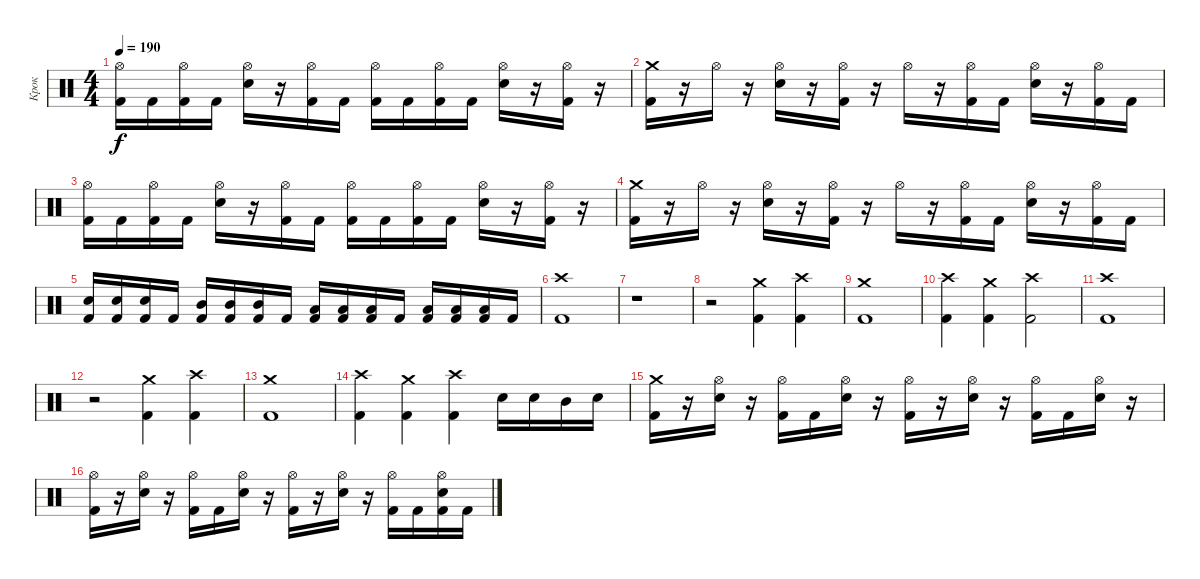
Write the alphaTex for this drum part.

\track ("Крок" "Крок") {instrument percussion}
\staff {score}
\articulation defaults
\ts (4 4)
\tempo 190
\clef neutral
\ks c
("Hi-Hat (open)" "Kick (hit) 2").16{dy f} "Kick (hit) 2".16 ("Hi-Hat (open)" "Kick (hit) 2").16 "Kick (hit) 2".16 ("Hi-Hat (open)" "Electric Snare (hit)").16 r.16 ("Hi-Hat (open)" "Kick (hit) 2").16 "Kick (hit) 2".16 ("Hi-Hat (open)" "Kick (hit) 2").16 "Kick (hit) 2".16 ("Hi-Hat (open)" "Kick (hit) 2").16 "Kick (hit) 2".16 ("Hi-Hat (open)" "Electric Snare (hit)").16 r.16 ("Hi-Hat (open)" "Kick (hit) 2").16 r.16 |
("Crash medium (hit)" "Kick (hit) 2").16 r.16 "Hi-Hat (open)".16 r.16 ("Hi-Hat (open)" "Electric Snare (hit)").16 r.16 ("Hi-Hat (open)" "Kick (hit) 2").16 r.16 "Hi-Hat (open)".16 r.16 ("Hi-Hat (open)" "Kick (hit) 2").16 "Kick (hit) 2".16 ("Hi-Hat (open)" "Electric Snare (hit)").16 r.16 ("Hi-Hat (open)" "Kick (hit) 2").16 "Kick (hit) 2".16 |
("Hi-Hat (open)" "Kick (hit) 2").16 "Kick (hit) 2".16 ("Hi-Hat (open)" "Kick (hit) 2").16 "Kick (hit) 2".16 ("Hi-Hat (open)" "Electric Snare (hit)").16 r.16 ("Hi-Hat (open)" "Kick (hit) 2").16 "Kick (hit) 2".16 ("Hi-Hat (open)" "Kick (hit) 2").16 "Kick (hit) 2".16 ("Hi-Hat (open)" "Kick (hit) 2").16 "Kick (hit) 2".16 ("Hi-Hat (open)" "Electric Snare (hit)").16 r.16 ("Hi-Hat (open)" "Kick (hit) 2").16 r.16 |
("Crash medium (hit)" "Kick (hit) 2").16 r.16 "Hi-Hat (open)".16 r.16 ("Hi-Hat (open)" "Electric Snare (hit)").16 r.16 ("Hi-Hat (open)" "Kick (hit) 2").16 r.16 "Hi-Hat (open)".16 r.16 ("Hi-Hat (open)" "Kick (hit) 2").16 "Kick (hit) 2".16 ("Hi-Hat (open)" "Electric Snare (hit)").16 r.16 ("Hi-Hat (open)" "Kick (hit) 2").16 "Kick (hit) 2".16 |
("Electric Snare (hit)" "Kick (hit) 2").16 ("Electric Snare (hit)" "Kick (hit) 2").16 ("Electric Snare (hit)" "Kick (hit) 2").16 "Kick (hit) 2".16 ("Mid Tom (hit)" "Kick (hit) 2").16 ("Mid Tom (hit)" "Kick (hit) 2").16 ("Mid Tom (hit)" "Kick (hit) 2").16 "Kick (hit) 2".16 ("Low Tom (hit)" "Kick (hit) 2").16 ("Low Tom (hit)" "Kick (hit) 2").16 ("Low Tom (hit)" "Kick (hit) 2").16 "Kick (hit) 2".16 ("Low Floor Tom (hit)" "Kick (hit) 2").16 ("Low Floor Tom (hit)" "Kick (hit) 2").16 ("Low Floor Tom (hit)" "Kick (hit) 2").16 "Kick (hit) 2".16 |
("Crash high (hit)" "Kick (hit) 2").1 |
r.1 |
r.2 ("Kick (hit) 2" "Crash medium (hit)").4 ("Kick (hit) 2" "Crash high (hit)").4 |
("Kick (hit) 2" "Crash medium (hit)").1 |
("Kick (hit) 2" "Crash high (hit)").4 ("Kick (hit) 2" "Crash medium (hit)").4 ("Kick (hit) 2" "Crash high (hit)").2 |
("Crash high (hit)" "Kick (hit) 2").1 |
r.2 ("Kick (hit) 2" "Crash medium (hit)").4 ("Kick (hit) 2" "Crash high (hit)").4 |
("Kick (hit) 2" "Crash medium (hit)").1 |
("Kick (hit) 2" "Crash high (hit)").4 ("Kick (hit) 2" "Crash medium (hit)").4 ("Kick (hit) 2" "Crash high (hit)").4 "Electric Snare (hit)".16 "Electric Snare (hit)".16 "Mid Tom (hit)".16 "Electric Snare (hit)".16 |
("Crash medium (hit)" "Kick (hit) 2").16 r.16 ("Hi-Hat (open)" "Electric Snare (hit)").16 r.16 ("Hi-Hat (open)" "Kick (hit) 2").16 "Kick (hit) 2".16 ("Hi-Hat (open)" "Electric Snare (hit)").16 r.16 ("Hi-Hat (open)" "Kick (hit) 2").16 r.16 ("Hi-Hat (open)" "Electric Snare (hit)").16 r.16 ("Hi-Hat (open)" "Kick (hit) 2").16 "Kick (hit) 2".16 ("Hi-Hat (open)" "Electric Snare (hit)").16 r.16 |
("Hi-Hat (open)" "Kick (hit) 2").16 r.16 ("Hi-Hat (open)" "Electric Snare (hit)").16 r.16 ("Hi-Hat (open)" "Kick (hit) 2").16 "Kick (hit) 2".16 ("Hi-Hat (open)" "Electric Snare (hit)").16 r.16 ("Hi-Hat (open)" "Kick (hit) 2").16 r.16 ("Hi-Hat (open)" "Electric Snare (hit)").16 r.16 ("Hi-Hat (open)" "Kick (hit) 2").16 "Kick (hit) 2".16 ("Hi-Hat (open)" "Electric Snare (hit)" "Kick (hit) 2").16 "Kick (hit) 2".16
